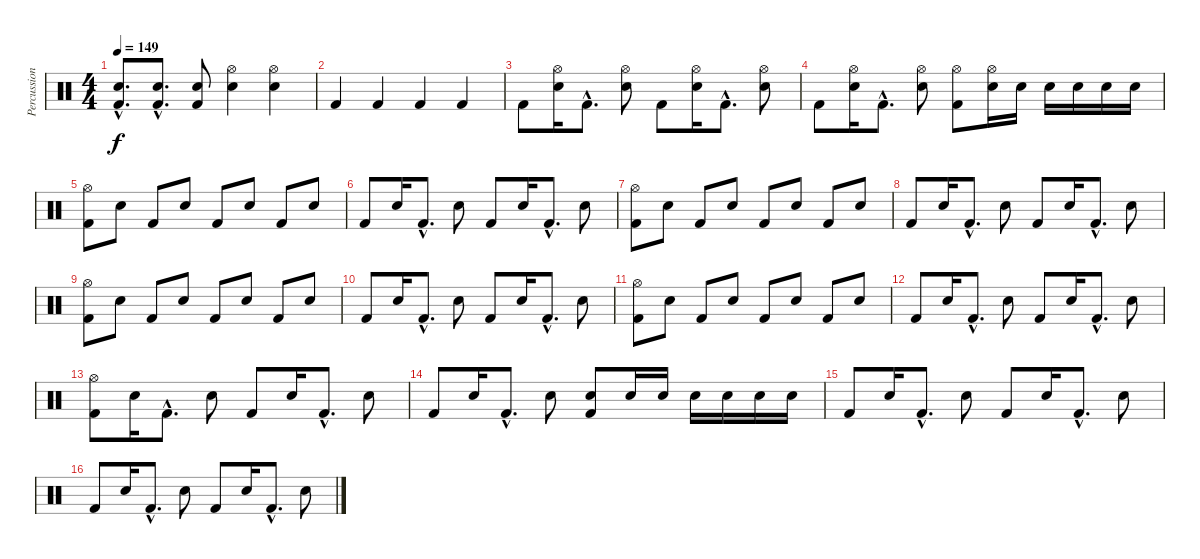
\track ("Percussion" "Percussion") {instrument percussion}
\staff {score}
\articulation defaults
\ts (4 4)
\tempo 149
\clef neutral
\ks c
("Snare (hit) 2"{hac} "Kick (hit) 2"{hac}).8{d dy f} ("Snare (hit) 2"{hac} "Kick (hit) 2"{hac}).8{d} ("Snare (hit) 2" "Kick (hit) 2").8 ("Hi-Hat (open)" "Snare (hit) 2").4 ("Hi-Hat (open)" "Snare (hit) 2").4 |
"Kick (hit) 2".4 "Kick (hit) 2".4 "Kick (hit) 2".4 "Kick (hit) 2".4 |
"Kick (hit) 2".8 ("Snare (hit) 2" "Hi-Hat (open)").16 "Kick (hit) 2"{hac}.8{d} ("Snare (hit) 2" "Hi-Hat (open)").8 "Kick (hit) 2".8 ("Snare (hit) 2" "Hi-Hat (open)").16 "Kick (hit) 2"{hac}.8{d} ("Snare (hit) 2" "Hi-Hat (open)").8 |
"Kick (hit) 2".8 ("Snare (hit) 2" "Hi-Hat (open)").16 "Kick (hit) 2"{hac}.8{d} ("Snare (hit) 2" "Hi-Hat (open)").8 ("Hi-Hat (open)" "Kick (hit) 2").8 ("Snare (hit) 2" "Hi-Hat (open)").16 "Snare (hit) 2".16 "Snare (hit) 2".16 "Snare (hit) 2".16 "Snare (hit) 2".16 "Snare (hit) 2".16 |
("Hi-Hat (open)" "Kick (hit) 2").8 "Snare (hit) 2".8 "Kick (hit) 2".8 "Snare (hit) 2".8 "Kick (hit) 2".8 "Snare (hit) 2".8 "Kick (hit) 2".8 "Snare (hit) 2".8 |
"Kick (hit) 2".8 "Snare (hit) 2".16 "Kick (hit) 2"{hac}.8{d} "Snare (hit) 2".8 "Kick (hit) 2".8 "Snare (hit) 2".16 "Kick (hit) 2"{hac}.8{d} "Snare (hit) 2".8 |
("Hi-Hat (open)" "Kick (hit) 2").8 "Snare (hit) 2".8 "Kick (hit) 2".8 "Snare (hit) 2".8 "Kick (hit) 2".8 "Snare (hit) 2".8 "Kick (hit) 2".8 "Snare (hit) 2".8 |
"Kick (hit) 2".8 "Snare (hit) 2".16 "Kick (hit) 2"{hac}.8{d} "Snare (hit) 2".8 "Kick (hit) 2".8 "Snare (hit) 2".16 "Kick (hit) 2"{hac}.8{d} "Snare (hit) 2".8 |
("Hi-Hat (open)" "Kick (hit) 2").8 "Snare (hit) 2".8 "Kick (hit) 2".8 "Snare (hit) 2".8 "Kick (hit) 2".8 "Snare (hit) 2".8 "Kick (hit) 2".8 "Snare (hit) 2".8 |
"Kick (hit) 2".8 "Snare (hit) 2".16 "Kick (hit) 2"{hac}.8{d} "Snare (hit) 2".8 "Kick (hit) 2".8 "Snare (hit) 2".16 "Kick (hit) 2"{hac}.8{d} "Snare (hit) 2".8 |
("Hi-Hat (open)" "Kick (hit) 2").8 "Snare (hit) 2".8 "Kick (hit) 2".8 "Snare (hit) 2".8 "Kick (hit) 2".8 "Snare (hit) 2".8 "Kick (hit) 2".8 "Snare (hit) 2".8 |
"Kick (hit) 2".8 "Snare (hit) 2".16 "Kick (hit) 2"{hac}.8{d} "Snare (hit) 2".8 "Kick (hit) 2".8 "Snare (hit) 2".16 "Kick (hit) 2"{hac}.8{d} "Snare (hit) 2".8 |
("Hi-Hat (open)" "Kick (hit) 2").8 "Snare (hit) 2".16 "Kick (hit) 2"{hac}.8{d} "Snare (hit) 2".8 "Kick (hit) 2".8 "Snare (hit) 2".16 "Kick (hit) 2"{hac}.8{d} "Snare (hit) 2".8 |
"Kick (hit) 2".8 "Snare (hit) 2".16 "Kick (hit) 2"{hac}.8{d} "Snare (hit) 2".8 ("Snare (hit) 2" "Kick (hit) 2").8 "Snare (hit) 2".16 "Snare (hit) 2".16 "Snare (hit) 2".16 "Snare (hit) 2".16 "Snare (hit) 2".16 "Snare (hit) 2".16 |
"Kick (hit) 2".8 "Snare (hit) 2".16 "Kick (hit) 2"{hac}.8{d} "Snare (hit) 2".8 "Kick (hit) 2".8 "Snare (hit) 2".16 "Kick (hit) 2"{hac}.8{d} "Snare (hit) 2".8 |
"Kick (hit) 2".8 "Snare (hit) 2".16 "Kick (hit) 2"{hac}.8{d} "Snare (hit) 2".8 "Kick (hit) 2".8 "Snare (hit) 2".16 "Kick (hit) 2"{hac}.8{d} "Snare (hit) 2".8
